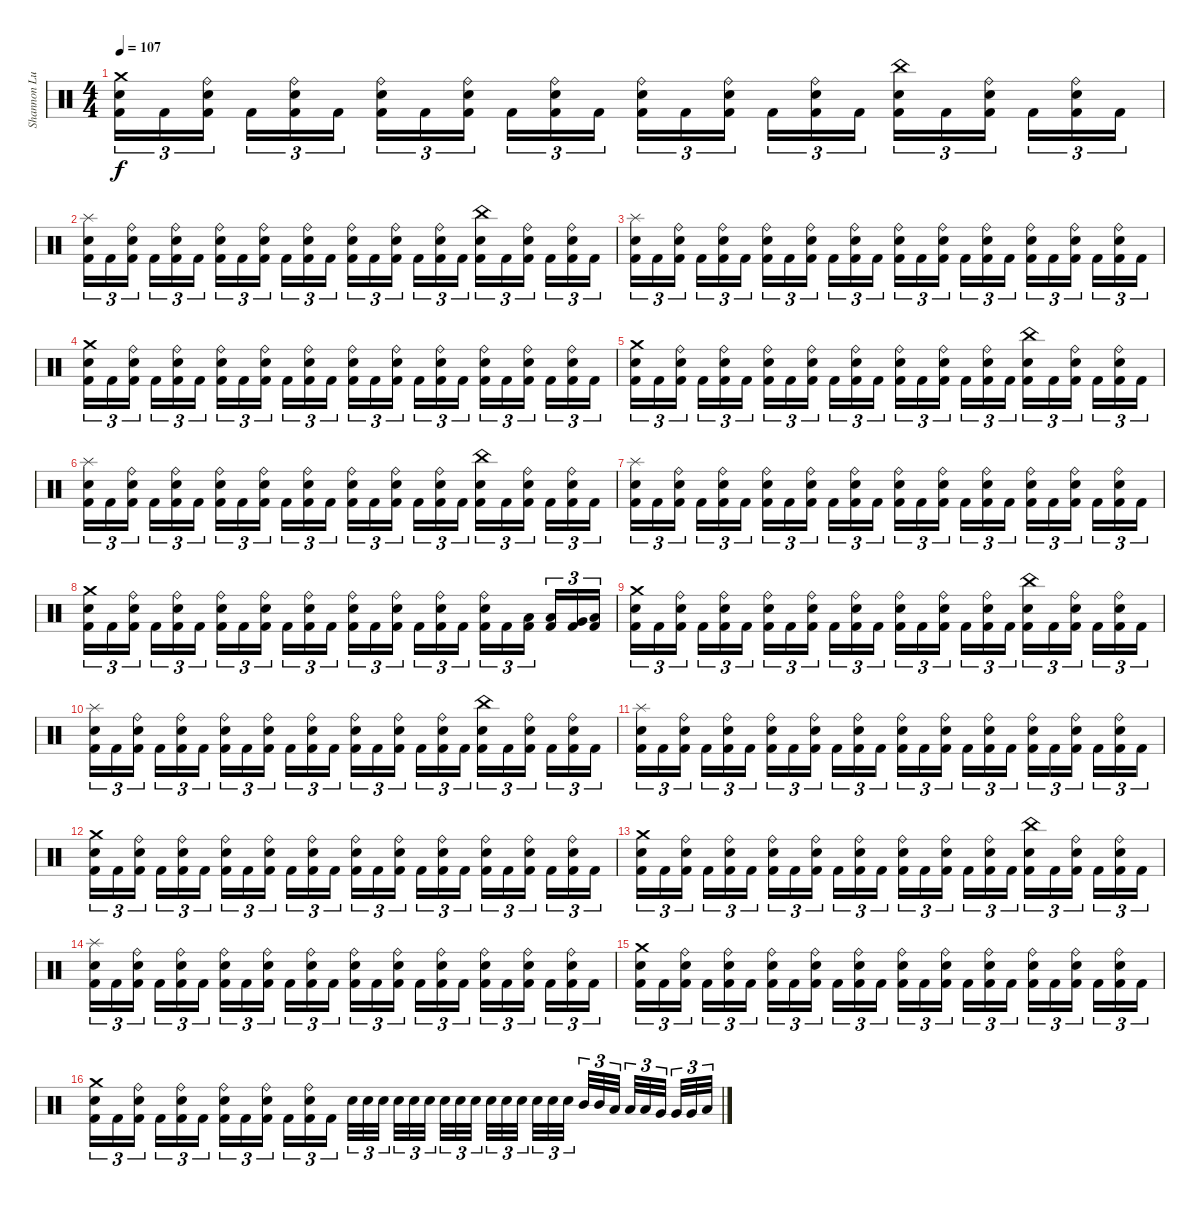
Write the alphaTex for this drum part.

\track ("Shannon Lucas (Drums)" "Shannon Lu") {instrument percussion}
\staff {score}
\articulation defaults
\ts (4 4)
\tempo 107
\clef neutral
\ks c
("Crash medium (hit)" "Snare (hit) 2" "Kick (hit) 2").16{tu (3 2) dy f} "Kick (hit) 2".16{tu (3 2)} ("Ride (bell)" "Snare (hit) 2" "Kick (hit) 2").16{tu (3 2)} "Kick (hit) 2".16{tu (3 2)} ("Ride (bell)" "Snare (hit) 2" "Kick (hit) 2").16{tu (3 2)} "Kick (hit) 2".16{tu (3 2)} ("Ride (bell)" "Snare (hit) 2" "Kick (hit) 2").16{tu (3 2)} "Kick (hit) 2".16{tu (3 2)} ("Ride (bell)" "Snare (hit) 2" "Kick (hit) 2").16{tu (3 2)} "Kick (hit) 2".16{tu (3 2)} ("Ride (bell)" "Snare (hit) 2" "Kick (hit) 2").16{tu (3 2)} "Kick (hit) 2".16{tu (3 2)} ("Ride (bell)" "Snare (hit) 2" "Kick (hit) 2").16{tu (3 2)} "Kick (hit) 2".16{tu (3 2)} ("Ride (bell)" "Snare (hit) 2" "Kick (hit) 2").16{tu (3 2)} "Kick (hit) 2".16{tu (3 2)} ("Ride (bell)" "Snare (hit) 2" "Kick (hit) 2").16{tu (3 2)} "Kick (hit) 2".16{tu (3 2)} ("China (hit)" "Snare (hit) 2" "Kick (hit) 2").16{tu (3 2)} "Kick (hit) 2".16{tu (3 2)} ("Ride (bell)" "Snare (hit) 2" "Kick (hit) 2").16{tu (3 2)} "Kick (hit) 2".16{tu (3 2)} ("Ride (bell)" "Snare (hit) 2" "Kick (hit) 2").16{tu (3 2)} "Kick (hit) 2".16{tu (3 2)} |
("Splash (hit)" "Snare (hit) 2" "Kick (hit) 2").16{tu (3 2)} "Kick (hit) 2".16{tu (3 2)} ("Ride (bell)" "Snare (hit) 2" "Kick (hit) 2").16{tu (3 2)} "Kick (hit) 2".16{tu (3 2)} ("Ride (bell)" "Snare (hit) 2" "Kick (hit) 2").16{tu (3 2)} "Kick (hit) 2".16{tu (3 2)} ("Ride (bell)" "Snare (hit) 2" "Kick (hit) 2").16{tu (3 2)} "Kick (hit) 2".16{tu (3 2)} ("Ride (bell)" "Snare (hit) 2" "Kick (hit) 2").16{tu (3 2)} "Kick (hit) 2".16{tu (3 2)} ("Ride (bell)" "Snare (hit) 2" "Kick (hit) 2").16{tu (3 2)} "Kick (hit) 2".16{tu (3 2)} ("Ride (bell)" "Snare (hit) 2" "Kick (hit) 2").16{tu (3 2)} "Kick (hit) 2".16{tu (3 2)} ("Ride (bell)" "Snare (hit) 2" "Kick (hit) 2").16{tu (3 2)} "Kick (hit) 2".16{tu (3 2)} ("Ride (bell)" "Snare (hit) 2" "Kick (hit) 2").16{tu (3 2)} "Kick (hit) 2".16{tu (3 2)} ("China (hit)" "Snare (hit) 2" "Kick (hit) 2").16{tu (3 2)} "Kick (hit) 2".16{tu (3 2)} ("Ride (bell)" "Snare (hit) 2" "Kick (hit) 2").16{tu (3 2)} "Kick (hit) 2".16{tu (3 2)} ("Ride (bell)" "Snare (hit) 2" "Kick (hit) 2").16{tu (3 2)} "Kick (hit) 2".16{tu (3 2)} |
("Splash (hit)" "Snare (hit) 2" "Kick (hit) 2").16{tu (3 2)} "Kick (hit) 2".16{tu (3 2)} ("Ride (bell)" "Snare (hit) 2" "Kick (hit) 2").16{tu (3 2)} "Kick (hit) 2".16{tu (3 2)} ("Ride (bell)" "Snare (hit) 2" "Kick (hit) 2").16{tu (3 2)} "Kick (hit) 2".16{tu (3 2)} ("Ride (bell)" "Snare (hit) 2" "Kick (hit) 2").16{tu (3 2)} "Kick (hit) 2".16{tu (3 2)} ("Ride (bell)" "Snare (hit) 2" "Kick (hit) 2").16{tu (3 2)} "Kick (hit) 2".16{tu (3 2)} ("Ride (bell)" "Snare (hit) 2" "Kick (hit) 2").16{tu (3 2)} "Kick (hit) 2".16{tu (3 2)} ("Ride (bell)" "Snare (hit) 2" "Kick (hit) 2").16{tu (3 2)} "Kick (hit) 2".16{tu (3 2)} ("Ride (bell)" "Snare (hit) 2" "Kick (hit) 2").16{tu (3 2)} "Kick (hit) 2".16{tu (3 2)} ("Ride (bell)" "Snare (hit) 2" "Kick (hit) 2").16{tu (3 2)} "Kick (hit) 2".16{tu (3 2)} ("Ride (bell)" "Snare (hit) 2" "Kick (hit) 2").16{tu (3 2)} "Kick (hit) 2".16{tu (3 2)} ("Ride (bell)" "Snare (hit) 2" "Kick (hit) 2").16{tu (3 2)} "Kick (hit) 2".16{tu (3 2)} ("Ride (bell)" "Snare (hit) 2" "Kick (hit) 2").16{tu (3 2)} "Kick (hit) 2".16{tu (3 2)} |
("Crash medium (hit)" "Snare (hit) 2" "Kick (hit) 2").16{tu (3 2)} "Kick (hit) 2".16{tu (3 2)} ("Ride (bell)" "Snare (hit) 2" "Kick (hit) 2").16{tu (3 2)} "Kick (hit) 2".16{tu (3 2)} ("Ride (bell)" "Snare (hit) 2" "Kick (hit) 2").16{tu (3 2)} "Kick (hit) 2".16{tu (3 2)} ("Ride (bell)" "Snare (hit) 2" "Kick (hit) 2").16{tu (3 2)} "Kick (hit) 2".16{tu (3 2)} ("Ride (bell)" "Snare (hit) 2" "Kick (hit) 2").16{tu (3 2)} "Kick (hit) 2".16{tu (3 2)} ("Ride (bell)" "Snare (hit) 2" "Kick (hit) 2").16{tu (3 2)} "Kick (hit) 2".16{tu (3 2)} ("Ride (bell)" "Snare (hit) 2" "Kick (hit) 2").16{tu (3 2)} "Kick (hit) 2".16{tu (3 2)} ("Ride (bell)" "Snare (hit) 2" "Kick (hit) 2").16{tu (3 2)} "Kick (hit) 2".16{tu (3 2)} ("Ride (bell)" "Snare (hit) 2" "Kick (hit) 2").16{tu (3 2)} "Kick (hit) 2".16{tu (3 2)} ("Ride (bell)" "Snare (hit) 2" "Kick (hit) 2").16{tu (3 2)} "Kick (hit) 2".16{tu (3 2)} ("Ride (bell)" "Snare (hit) 2" "Kick (hit) 2").16{tu (3 2)} "Kick (hit) 2".16{tu (3 2)} ("Ride (bell)" "Snare (hit) 2" "Kick (hit) 2").16{tu (3 2)} "Kick (hit) 2".16{tu (3 2)} |
("Crash medium (hit)" "Snare (hit) 2" "Kick (hit) 2").16{tu (3 2)} "Kick (hit) 2".16{tu (3 2)} ("Ride (bell)" "Snare (hit) 2" "Kick (hit) 2").16{tu (3 2)} "Kick (hit) 2".16{tu (3 2)} ("Ride (bell)" "Snare (hit) 2" "Kick (hit) 2").16{tu (3 2)} "Kick (hit) 2".16{tu (3 2)} ("Ride (bell)" "Snare (hit) 2" "Kick (hit) 2").16{tu (3 2)} "Kick (hit) 2".16{tu (3 2)} ("Ride (bell)" "Snare (hit) 2" "Kick (hit) 2").16{tu (3 2)} "Kick (hit) 2".16{tu (3 2)} ("Ride (bell)" "Snare (hit) 2" "Kick (hit) 2").16{tu (3 2)} "Kick (hit) 2".16{tu (3 2)} ("Ride (bell)" "Snare (hit) 2" "Kick (hit) 2").16{tu (3 2)} "Kick (hit) 2".16{tu (3 2)} ("Ride (bell)" "Snare (hit) 2" "Kick (hit) 2").16{tu (3 2)} "Kick (hit) 2".16{tu (3 2)} ("Ride (bell)" "Snare (hit) 2" "Kick (hit) 2").16{tu (3 2)} "Kick (hit) 2".16{tu (3 2)} ("China (hit)" "Snare (hit) 2" "Kick (hit) 2").16{tu (3 2)} "Kick (hit) 2".16{tu (3 2)} ("Ride (bell)" "Snare (hit) 2" "Kick (hit) 2").16{tu (3 2)} "Kick (hit) 2".16{tu (3 2)} ("Ride (bell)" "Snare (hit) 2" "Kick (hit) 2").16{tu (3 2)} "Kick (hit) 2".16{tu (3 2)} |
("Splash (hit)" "Snare (hit) 2" "Kick (hit) 2").16{tu (3 2)} "Kick (hit) 2".16{tu (3 2)} ("Ride (bell)" "Snare (hit) 2" "Kick (hit) 2").16{tu (3 2)} "Kick (hit) 2".16{tu (3 2)} ("Ride (bell)" "Snare (hit) 2" "Kick (hit) 2").16{tu (3 2)} "Kick (hit) 2".16{tu (3 2)} ("Ride (bell)" "Snare (hit) 2" "Kick (hit) 2").16{tu (3 2)} "Kick (hit) 2".16{tu (3 2)} ("Ride (bell)" "Snare (hit) 2" "Kick (hit) 2").16{tu (3 2)} "Kick (hit) 2".16{tu (3 2)} ("Ride (bell)" "Snare (hit) 2" "Kick (hit) 2").16{tu (3 2)} "Kick (hit) 2".16{tu (3 2)} ("Ride (bell)" "Snare (hit) 2" "Kick (hit) 2").16{tu (3 2)} "Kick (hit) 2".16{tu (3 2)} ("Ride (bell)" "Snare (hit) 2" "Kick (hit) 2").16{tu (3 2)} "Kick (hit) 2".16{tu (3 2)} ("Ride (bell)" "Snare (hit) 2" "Kick (hit) 2").16{tu (3 2)} "Kick (hit) 2".16{tu (3 2)} ("China (hit)" "Snare (hit) 2" "Kick (hit) 2").16{tu (3 2)} "Kick (hit) 2".16{tu (3 2)} ("Ride (bell)" "Snare (hit) 2" "Kick (hit) 2").16{tu (3 2)} "Kick (hit) 2".16{tu (3 2)} ("Ride (bell)" "Snare (hit) 2" "Kick (hit) 2").16{tu (3 2)} "Kick (hit) 2".16{tu (3 2)} |
("Splash (hit)" "Snare (hit) 2" "Kick (hit) 2").16{tu (3 2)} "Kick (hit) 2".16{tu (3 2)} ("Ride (bell)" "Snare (hit) 2" "Kick (hit) 2").16{tu (3 2)} "Kick (hit) 2".16{tu (3 2)} ("Ride (bell)" "Snare (hit) 2" "Kick (hit) 2").16{tu (3 2)} "Kick (hit) 2".16{tu (3 2)} ("Ride (bell)" "Snare (hit) 2" "Kick (hit) 2").16{tu (3 2)} "Kick (hit) 2".16{tu (3 2)} ("Ride (bell)" "Snare (hit) 2" "Kick (hit) 2").16{tu (3 2)} "Kick (hit) 2".16{tu (3 2)} ("Ride (bell)" "Snare (hit) 2" "Kick (hit) 2").16{tu (3 2)} "Kick (hit) 2".16{tu (3 2)} ("Ride (bell)" "Snare (hit) 2" "Kick (hit) 2").16{tu (3 2)} "Kick (hit) 2".16{tu (3 2)} ("Ride (bell)" "Snare (hit) 2" "Kick (hit) 2").16{tu (3 2)} "Kick (hit) 2".16{tu (3 2)} ("Ride (bell)" "Snare (hit) 2" "Kick (hit) 2").16{tu (3 2)} "Kick (hit) 2".16{tu (3 2)} ("Ride (bell)" "Snare (hit) 2" "Kick (hit) 2").16{tu (3 2)} "Kick (hit) 2".16{tu (3 2)} ("Ride (bell)" "Snare (hit) 2" "Kick (hit) 2").16{tu (3 2)} "Kick (hit) 2".16{tu (3 2)} ("Ride (bell)" "Snare (hit) 2" "Kick (hit) 2").16{tu (3 2)} "Kick (hit) 2".16{tu (3 2)} |
("Crash medium (hit)" "Snare (hit) 2" "Kick (hit) 2").16{tu (3 2)} "Kick (hit) 2".16{tu (3 2)} ("Ride (bell)" "Snare (hit) 2" "Kick (hit) 2").16{tu (3 2)} "Kick (hit) 2".16{tu (3 2)} ("Ride (bell)" "Snare (hit) 2" "Kick (hit) 2").16{tu (3 2)} "Kick (hit) 2".16{tu (3 2)} ("Ride (bell)" "Snare (hit) 2" "Kick (hit) 2").16{tu (3 2)} "Kick (hit) 2".16{tu (3 2)} ("Ride (bell)" "Snare (hit) 2" "Kick (hit) 2").16{tu (3 2)} "Kick (hit) 2".16{tu (3 2)} ("Ride (bell)" "Snare (hit) 2" "Kick (hit) 2").16{tu (3 2)} "Kick (hit) 2".16{tu (3 2)} ("Ride (bell)" "Snare (hit) 2" "Kick (hit) 2").16{tu (3 2)} "Kick (hit) 2".16{tu (3 2)} ("Ride (bell)" "Snare (hit) 2" "Kick (hit) 2").16{tu (3 2)} "Kick (hit) 2".16{tu (3 2)} ("Ride (bell)" "Snare (hit) 2" "Kick (hit) 2").16{tu (3 2)} "Kick (hit) 2".16{tu (3 2)} ("Ride (bell)" "Snare (hit) 2" "Kick (hit) 2").16{tu (3 2)} "Kick (hit) 2".16{tu (3 2)} ("Low Tom (hit)" "Kick (hit) 2").16{tu (3 2)} ("Low Tom (hit)" "Kick (hit) 2").16{tu (3 2)} ("Very Low Tom (hit)" "Kick (hit) 2").16{tu (3 2)} ("Low Floor Tom (hit)" "Kick (hit) 2").16{tu (3 2)} |
("Crash medium (hit)" "Snare (hit) 2" "Kick (hit) 2").16{tu (3 2)} "Kick (hit) 2".16{tu (3 2)} ("Ride (bell)" "Snare (hit) 2" "Kick (hit) 2").16{tu (3 2)} "Kick (hit) 2".16{tu (3 2)} ("Ride (bell)" "Snare (hit) 2" "Kick (hit) 2").16{tu (3 2)} "Kick (hit) 2".16{tu (3 2)} ("Ride (bell)" "Snare (hit) 2" "Kick (hit) 2").16{tu (3 2)} "Kick (hit) 2".16{tu (3 2)} ("Ride (bell)" "Snare (hit) 2" "Kick (hit) 2").16{tu (3 2)} "Kick (hit) 2".16{tu (3 2)} ("Ride (bell)" "Snare (hit) 2" "Kick (hit) 2").16{tu (3 2)} "Kick (hit) 2".16{tu (3 2)} ("Ride (bell)" "Snare (hit) 2" "Kick (hit) 2").16{tu (3 2)} "Kick (hit) 2".16{tu (3 2)} ("Ride (bell)" "Snare (hit) 2" "Kick (hit) 2").16{tu (3 2)} "Kick (hit) 2".16{tu (3 2)} ("Ride (bell)" "Snare (hit) 2" "Kick (hit) 2").16{tu (3 2)} "Kick (hit) 2".16{tu (3 2)} ("China (hit)" "Snare (hit) 2" "Kick (hit) 2").16{tu (3 2)} "Kick (hit) 2".16{tu (3 2)} ("Ride (bell)" "Snare (hit) 2" "Kick (hit) 2").16{tu (3 2)} "Kick (hit) 2".16{tu (3 2)} ("Ride (bell)" "Snare (hit) 2" "Kick (hit) 2").16{tu (3 2)} "Kick (hit) 2".16{tu (3 2)} |
("Splash (hit)" "Snare (hit) 2" "Kick (hit) 2").16{tu (3 2)} "Kick (hit) 2".16{tu (3 2)} ("Ride (bell)" "Snare (hit) 2" "Kick (hit) 2").16{tu (3 2)} "Kick (hit) 2".16{tu (3 2)} ("Ride (bell)" "Snare (hit) 2" "Kick (hit) 2").16{tu (3 2)} "Kick (hit) 2".16{tu (3 2)} ("Ride (bell)" "Snare (hit) 2" "Kick (hit) 2").16{tu (3 2)} "Kick (hit) 2".16{tu (3 2)} ("Ride (bell)" "Snare (hit) 2" "Kick (hit) 2").16{tu (3 2)} "Kick (hit) 2".16{tu (3 2)} ("Ride (bell)" "Snare (hit) 2" "Kick (hit) 2").16{tu (3 2)} "Kick (hit) 2".16{tu (3 2)} ("Ride (bell)" "Snare (hit) 2" "Kick (hit) 2").16{tu (3 2)} "Kick (hit) 2".16{tu (3 2)} ("Ride (bell)" "Snare (hit) 2" "Kick (hit) 2").16{tu (3 2)} "Kick (hit) 2".16{tu (3 2)} ("Ride (bell)" "Snare (hit) 2" "Kick (hit) 2").16{tu (3 2)} "Kick (hit) 2".16{tu (3 2)} ("China (hit)" "Snare (hit) 2" "Kick (hit) 2").16{tu (3 2)} "Kick (hit) 2".16{tu (3 2)} ("Ride (bell)" "Snare (hit) 2" "Kick (hit) 2").16{tu (3 2)} "Kick (hit) 2".16{tu (3 2)} ("Ride (bell)" "Snare (hit) 2" "Kick (hit) 2").16{tu (3 2)} "Kick (hit) 2".16{tu (3 2)} |
("Splash (hit)" "Snare (hit) 2" "Kick (hit) 2").16{tu (3 2)} "Kick (hit) 2".16{tu (3 2)} ("Ride (bell)" "Snare (hit) 2" "Kick (hit) 2").16{tu (3 2)} "Kick (hit) 2".16{tu (3 2)} ("Ride (bell)" "Snare (hit) 2" "Kick (hit) 2").16{tu (3 2)} "Kick (hit) 2".16{tu (3 2)} ("Ride (bell)" "Snare (hit) 2" "Kick (hit) 2").16{tu (3 2)} "Kick (hit) 2".16{tu (3 2)} ("Ride (bell)" "Snare (hit) 2" "Kick (hit) 2").16{tu (3 2)} "Kick (hit) 2".16{tu (3 2)} ("Ride (bell)" "Snare (hit) 2" "Kick (hit) 2").16{tu (3 2)} "Kick (hit) 2".16{tu (3 2)} ("Ride (bell)" "Snare (hit) 2" "Kick (hit) 2").16{tu (3 2)} "Kick (hit) 2".16{tu (3 2)} ("Ride (bell)" "Snare (hit) 2" "Kick (hit) 2").16{tu (3 2)} "Kick (hit) 2".16{tu (3 2)} ("Ride (bell)" "Snare (hit) 2" "Kick (hit) 2").16{tu (3 2)} "Kick (hit) 2".16{tu (3 2)} ("Ride (bell)" "Snare (hit) 2" "Kick (hit) 2").16{tu (3 2)} "Kick (hit) 2".16{tu (3 2)} ("Ride (bell)" "Snare (hit) 2" "Kick (hit) 2").16{tu (3 2)} "Kick (hit) 2".16{tu (3 2)} ("Ride (bell)" "Snare (hit) 2" "Kick (hit) 2").16{tu (3 2)} "Kick (hit) 2".16{tu (3 2)} |
("Crash medium (hit)" "Snare (hit) 2" "Kick (hit) 2").16{tu (3 2)} "Kick (hit) 2".16{tu (3 2)} ("Ride (bell)" "Snare (hit) 2" "Kick (hit) 2").16{tu (3 2)} "Kick (hit) 2".16{tu (3 2)} ("Ride (bell)" "Snare (hit) 2" "Kick (hit) 2").16{tu (3 2)} "Kick (hit) 2".16{tu (3 2)} ("Ride (bell)" "Snare (hit) 2" "Kick (hit) 2").16{tu (3 2)} "Kick (hit) 2".16{tu (3 2)} ("Ride (bell)" "Snare (hit) 2" "Kick (hit) 2").16{tu (3 2)} "Kick (hit) 2".16{tu (3 2)} ("Ride (bell)" "Snare (hit) 2" "Kick (hit) 2").16{tu (3 2)} "Kick (hit) 2".16{tu (3 2)} ("Ride (bell)" "Snare (hit) 2" "Kick (hit) 2").16{tu (3 2)} "Kick (hit) 2".16{tu (3 2)} ("Ride (bell)" "Snare (hit) 2" "Kick (hit) 2").16{tu (3 2)} "Kick (hit) 2".16{tu (3 2)} ("Ride (bell)" "Snare (hit) 2" "Kick (hit) 2").16{tu (3 2)} "Kick (hit) 2".16{tu (3 2)} ("Ride (bell)" "Snare (hit) 2" "Kick (hit) 2").16{tu (3 2)} "Kick (hit) 2".16{tu (3 2)} ("Ride (bell)" "Snare (hit) 2" "Kick (hit) 2").16{tu (3 2)} "Kick (hit) 2".16{tu (3 2)} ("Ride (bell)" "Snare (hit) 2" "Kick (hit) 2").16{tu (3 2)} "Kick (hit) 2".16{tu (3 2)} |
("Crash medium (hit)" "Snare (hit) 2" "Kick (hit) 2").16{tu (3 2)} "Kick (hit) 2".16{tu (3 2)} ("Ride (bell)" "Snare (hit) 2" "Kick (hit) 2").16{tu (3 2)} "Kick (hit) 2".16{tu (3 2)} ("Ride (bell)" "Snare (hit) 2" "Kick (hit) 2").16{tu (3 2)} "Kick (hit) 2".16{tu (3 2)} ("Ride (bell)" "Snare (hit) 2" "Kick (hit) 2").16{tu (3 2)} "Kick (hit) 2".16{tu (3 2)} ("Ride (bell)" "Snare (hit) 2" "Kick (hit) 2").16{tu (3 2)} "Kick (hit) 2".16{tu (3 2)} ("Ride (bell)" "Snare (hit) 2" "Kick (hit) 2").16{tu (3 2)} "Kick (hit) 2".16{tu (3 2)} ("Ride (bell)" "Snare (hit) 2" "Kick (hit) 2").16{tu (3 2)} "Kick (hit) 2".16{tu (3 2)} ("Ride (bell)" "Snare (hit) 2" "Kick (hit) 2").16{tu (3 2)} "Kick (hit) 2".16{tu (3 2)} ("Ride (bell)" "Snare (hit) 2" "Kick (hit) 2").16{tu (3 2)} "Kick (hit) 2".16{tu (3 2)} ("China (hit)" "Snare (hit) 2" "Kick (hit) 2").16{tu (3 2)} "Kick (hit) 2".16{tu (3 2)} ("Ride (bell)" "Snare (hit) 2" "Kick (hit) 2").16{tu (3 2)} "Kick (hit) 2".16{tu (3 2)} ("Ride (bell)" "Snare (hit) 2" "Kick (hit) 2").16{tu (3 2)} "Kick (hit) 2".16{tu (3 2)} |
("Splash (hit)" "Snare (hit) 2" "Kick (hit) 2").16{tu (3 2)} "Kick (hit) 2".16{tu (3 2)} ("Ride (bell)" "Snare (hit) 2" "Kick (hit) 2").16{tu (3 2)} "Kick (hit) 2".16{tu (3 2)} ("Ride (bell)" "Snare (hit) 2" "Kick (hit) 2").16{tu (3 2)} "Kick (hit) 2".16{tu (3 2)} ("Ride (bell)" "Snare (hit) 2" "Kick (hit) 2").16{tu (3 2)} "Kick (hit) 2".16{tu (3 2)} ("Ride (bell)" "Snare (hit) 2" "Kick (hit) 2").16{tu (3 2)} "Kick (hit) 2".16{tu (3 2)} ("Ride (bell)" "Snare (hit) 2" "Kick (hit) 2").16{tu (3 2)} "Kick (hit) 2".16{tu (3 2)} ("Ride (bell)" "Snare (hit) 2" "Kick (hit) 2").16{tu (3 2)} "Kick (hit) 2".16{tu (3 2)} ("Ride (bell)" "Snare (hit) 2" "Kick (hit) 2").16{tu (3 2)} "Kick (hit) 2".16{tu (3 2)} ("Ride (bell)" "Snare (hit) 2" "Kick (hit) 2").16{tu (3 2)} "Kick (hit) 2".16{tu (3 2)} ("Ride (bell)" "Snare (hit) 2" "Kick (hit) 2").16{tu (3 2)} "Kick (hit) 2".16{tu (3 2)} ("Ride (bell)" "Snare (hit) 2" "Kick (hit) 2").16{tu (3 2)} "Kick (hit) 2".16{tu (3 2)} ("Ride (bell)" "Snare (hit) 2" "Kick (hit) 2").16{tu (3 2)} "Kick (hit) 2".16{tu (3 2)} |
("Crash medium (hit)" "Snare (hit) 2" "Kick (hit) 2").16{tu (3 2)} "Kick (hit) 2".16{tu (3 2)} ("Ride (bell)" "Snare (hit) 2" "Kick (hit) 2").16{tu (3 2)} "Kick (hit) 2".16{tu (3 2)} ("Ride (bell)" "Snare (hit) 2" "Kick (hit) 2").16{tu (3 2)} "Kick (hit) 2".16{tu (3 2)} ("Ride (bell)" "Snare (hit) 2" "Kick (hit) 2").16{tu (3 2)} "Kick (hit) 2".16{tu (3 2)} ("Ride (bell)" "Snare (hit) 2" "Kick (hit) 2").16{tu (3 2)} "Kick (hit) 2".16{tu (3 2)} ("Ride (bell)" "Snare (hit) 2" "Kick (hit) 2").16{tu (3 2)} "Kick (hit) 2".16{tu (3 2)} ("Ride (bell)" "Snare (hit) 2" "Kick (hit) 2").16{tu (3 2)} "Kick (hit) 2".16{tu (3 2)} ("Ride (bell)" "Snare (hit) 2" "Kick (hit) 2").16{tu (3 2)} "Kick (hit) 2".16{tu (3 2)} ("Ride (bell)" "Snare (hit) 2" "Kick (hit) 2").16{tu (3 2)} "Kick (hit) 2".16{tu (3 2)} ("Ride (bell)" "Snare (hit) 2" "Kick (hit) 2").16{tu (3 2)} "Kick (hit) 2".16{tu (3 2)} ("Ride (bell)" "Snare (hit) 2" "Kick (hit) 2").16{tu (3 2)} "Kick (hit) 2".16{tu (3 2)} ("Ride (bell)" "Snare (hit) 2" "Kick (hit) 2").16{tu (3 2)} "Kick (hit) 2".16{tu (3 2)} |
("Crash medium (hit)" "Snare (hit) 2" "Kick (hit) 2").16{tu (3 2)} "Kick (hit) 2".16{tu (3 2)} ("Ride (bell)" "Snare (hit) 2" "Kick (hit) 2").16{tu (3 2)} "Kick (hit) 2".16{tu (3 2)} ("Ride (bell)" "Snare (hit) 2" "Kick (hit) 2").16{tu (3 2)} "Kick (hit) 2".16{tu (3 2)} ("Ride (bell)" "Snare (hit) 2" "Kick (hit) 2").16{tu (3 2)} "Kick (hit) 2".16{tu (3 2)} ("Ride (bell)" "Snare (hit) 2" "Kick (hit) 2").16{tu (3 2)} "Kick (hit) 2".16{tu (3 2)} ("Ride (bell)" "Snare (hit) 2" "Kick (hit) 2").16{tu (3 2)} "Kick (hit) 2".16{tu (3 2)} "Snare (hit) 2".32{tu (3 2)} "Snare (hit) 2".32{tu (3 2)} "Snare (hit) 2".32{tu (3 2)} "Snare (hit) 2".32{tu (3 2)} "Snare (hit) 2".32{tu (3 2)} "Snare (hit) 2".32{tu (3 2)} "Snare (hit) 2".32{tu (3 2)} "Snare (hit) 2".32{tu (3 2)} "Snare (hit) 2".32{tu (3 2)} "Snare (hit) 2".32{tu (3 2)} "Snare (hit) 2".32{tu (3 2)} "Snare (hit) 2".32{tu (3 2)} "Snare (hit) 2".32{tu (3 2)} "Snare (hit) 2".32{tu (3 2)} "Snare (hit) 2".32{tu (3 2)} "Mid Tom (hit)".32{tu (3 2)} "Mid Tom (hit)".32{tu (3 2)} "Low Tom (hit)".32{tu (3 2)} "Low Tom (hit)".32{tu (3 2)} "Low Tom (hit)".32{tu (3 2)} "Very Low Tom (hit)".32{tu (3 2)} "Very Low Tom (hit)".32{tu (3 2)} "Very Low Tom (hit)".32{tu (3 2)} "Low Floor Tom (hit)".32{tu (3 2)}
